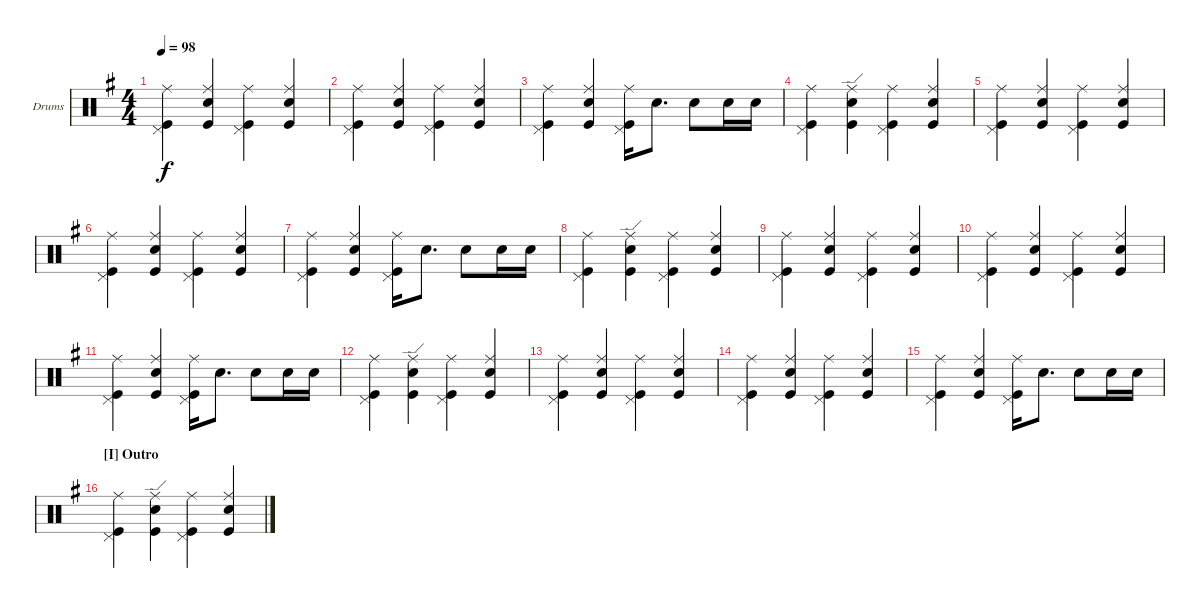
\defaultSystemsLayout 4
\bracketExtendMode groupsimilarinstruments
\firstSystemTrackNameOrientation horizontal
\otherSystemsTrackNameOrientation horizontal
\track ("Matt Helders" "Drums") {multiBarRest instrument percussion}
\staff {score}
\articulation defaults
\ts (4 4)
\tempo 98
\clef neutral
\ks g
("Kick (hit)" "Pedal Hi-Hat (hit)" "Ride (middle)").4{dy f} ("Snare (hit) 2" "Kick (hit)" "Ride (middle)").4 ("Kick (hit)" "Pedal Hi-Hat (hit)" "Ride (middle)").4 ("Snare (hit) 2" "Kick (hit)" "Ride (middle)").4 |
("Kick (hit)" "Pedal Hi-Hat (hit)" "Ride (middle)").4 ("Snare (hit) 2" "Kick (hit)" "Ride (middle)").4 ("Kick (hit)" "Pedal Hi-Hat (hit)" "Ride (middle)").4 ("Snare (hit) 2" "Kick (hit)" "Ride (middle)").4 |
("Kick (hit)" "Pedal Hi-Hat (hit)" "Ride (middle)").4 ("Snare (hit) 2" "Kick (hit)" "Ride (middle)").4 ("Kick (hit)" "Pedal Hi-Hat (hit)" "Ride (middle)").16 "Snare (hit) 2".8{d} "Snare (hit) 2".8 "Snare (hit) 2".16 "Snare (hit) 2".16 |
("Kick (hit)" "Pedal Hi-Hat (hit)" "Ride (middle)").4 ("Snare (hit) 2" "Kick (hit)" "Ride (edge)").4 ("Kick (hit)" "Pedal Hi-Hat (hit)" "Ride (middle)").4 ("Snare (hit) 2" "Kick (hit)" "Ride (middle)").4 |
("Kick (hit)" "Pedal Hi-Hat (hit)" "Ride (middle)").4 ("Snare (hit) 2" "Kick (hit)" "Ride (middle)").4 ("Kick (hit)" "Pedal Hi-Hat (hit)" "Ride (middle)").4 ("Snare (hit) 2" "Kick (hit)" "Ride (middle)").4 |
("Kick (hit)" "Pedal Hi-Hat (hit)" "Ride (middle)").4 ("Snare (hit) 2" "Kick (hit)" "Ride (middle)").4 ("Kick (hit)" "Pedal Hi-Hat (hit)" "Ride (middle)").4 ("Snare (hit) 2" "Kick (hit)" "Ride (middle)").4 |
("Kick (hit)" "Pedal Hi-Hat (hit)" "Ride (middle)").4 ("Snare (hit) 2" "Kick (hit)" "Ride (middle)").4 ("Kick (hit)" "Pedal Hi-Hat (hit)" "Ride (middle)").16 "Snare (hit) 2".8{d} "Snare (hit) 2".8 "Snare (hit) 2".16 "Snare (hit) 2".16 |
("Kick (hit)" "Pedal Hi-Hat (hit)" "Ride (middle)").4 ("Snare (hit) 2" "Kick (hit)" "Ride (edge)").4 ("Kick (hit)" "Pedal Hi-Hat (hit)" "Ride (middle)").4 ("Snare (hit) 2" "Kick (hit)" "Ride (middle)").4 |
("Kick (hit)" "Pedal Hi-Hat (hit)" "Ride (middle)").4 ("Snare (hit) 2" "Kick (hit)" "Ride (middle)").4 ("Kick (hit)" "Pedal Hi-Hat (hit)" "Ride (middle)").4 ("Snare (hit) 2" "Kick (hit)" "Ride (middle)").4 |
("Kick (hit)" "Pedal Hi-Hat (hit)" "Ride (middle)").4 ("Snare (hit) 2" "Kick (hit)" "Ride (middle)").4 ("Kick (hit)" "Pedal Hi-Hat (hit)" "Ride (middle)").4 ("Snare (hit) 2" "Kick (hit)" "Ride (middle)").4 |
("Kick (hit)" "Pedal Hi-Hat (hit)" "Ride (middle)").4 ("Snare (hit) 2" "Kick (hit)" "Ride (middle)").4 ("Kick (hit)" "Pedal Hi-Hat (hit)" "Ride (middle)").16 "Snare (hit) 2".8{d} "Snare (hit) 2".8 "Snare (hit) 2".16 "Snare (hit) 2".16 |
("Kick (hit)" "Pedal Hi-Hat (hit)" "Ride (middle)").4 ("Snare (hit) 2" "Kick (hit)" "Ride (edge)").4 ("Kick (hit)" "Pedal Hi-Hat (hit)" "Ride (middle)").4 ("Snare (hit) 2" "Kick (hit)" "Ride (middle)").4 |
("Kick (hit)" "Pedal Hi-Hat (hit)" "Ride (middle)").4 ("Snare (hit) 2" "Kick (hit)" "Ride (middle)").4 ("Kick (hit)" "Pedal Hi-Hat (hit)" "Ride (middle)").4 ("Snare (hit) 2" "Kick (hit)" "Ride (middle)").4 |
("Kick (hit)" "Pedal Hi-Hat (hit)" "Ride (middle)").4 ("Snare (hit) 2" "Kick (hit)" "Ride (middle)").4 ("Kick (hit)" "Pedal Hi-Hat (hit)" "Ride (middle)").4 ("Snare (hit) 2" "Kick (hit)" "Ride (middle)").4 |
("Kick (hit)" "Pedal Hi-Hat (hit)" "Ride (middle)").4 ("Snare (hit) 2" "Kick (hit)" "Ride (middle)").4 ("Kick (hit)" "Pedal Hi-Hat (hit)" "Ride (middle)").16 "Snare (hit) 2".8{d} "Snare (hit) 2".8 "Snare (hit) 2".16 "Snare (hit) 2".16 |
\section ("I" "Outro")
("Kick (hit)" "Pedal Hi-Hat (hit)" "Ride (middle)").4 ("Snare (hit) 2" "Kick (hit)" "Ride (edge)").4 ("Kick (hit)" "Pedal Hi-Hat (hit)" "Ride (middle)").4 ("Snare (hit) 2" "Kick (hit)" "Ride (middle)").4
